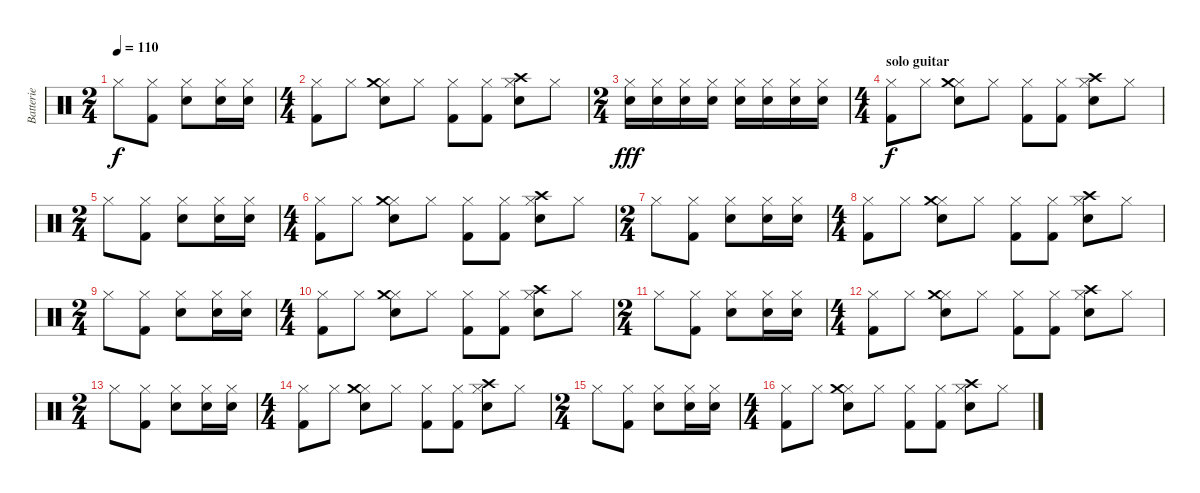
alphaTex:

\track ("Batterie" "Batterie") {instrument percussion}
\staff {score}
\articulation defaults
\ts (2 4)
\tempo 110
\clef neutral
\ks c "Hi-Hat (closed)".8{dy f}
("Hi-Hat (closed)" "Kick (hit) 2").8 ("Hi-Hat (closed)" "Electric Snare (hit)").8 ("Hi-Hat (closed)" "Electric Snare (hit)").16 ("Hi-Hat (closed)" "Electric Snare (hit)").16 |
\ts (4 4)
("Hi-Hat (closed)" "Kick (hit) 2").8 "Hi-Hat (closed)".8 ("Hi-Hat (closed)" "Crash medium (hit)" "Electric Snare (hit)").8 "Hi-Hat (closed)".8 ("Hi-Hat (closed)" "Kick (hit) 2").8 ("Hi-Hat (closed)" "Kick (hit) 2").8 ("Hi-Hat (closed)" "Crash high (hit)" "Electric Snare (hit)").8 "Hi-Hat (closed)".8 |
\ts (2 4)
("Hi-Hat (closed)" "Electric Snare (hit)").16{dy fff} ("Hi-Hat (closed)" "Electric Snare (hit)").16 ("Hi-Hat (closed)" "Electric Snare (hit)").16 ("Hi-Hat (closed)" "Electric Snare (hit)").16 ("Hi-Hat (closed)" "Electric Snare (hit)").16 ("Hi-Hat (closed)" "Electric Snare (hit)").16 ("Hi-Hat (closed)" "Electric Snare (hit)").16 ("Hi-Hat (closed)" "Electric Snare (hit)").16 |
\ts (4 4)
\section ("" "solo guitar")
("Hi-Hat (closed)" "Kick (hit) 2").8{dy f} "Hi-Hat (closed)".8 ("Hi-Hat (closed)" "Crash medium (hit)" "Electric Snare (hit)").8 "Hi-Hat (closed)".8 ("Hi-Hat (closed)" "Kick (hit) 2").8 ("Hi-Hat (closed)" "Kick (hit) 2").8 ("Hi-Hat (closed)" "Crash high (hit)" "Electric Snare (hit)").8 "Hi-Hat (closed)".8 |
\ts (2 4)
"Hi-Hat (closed)".8 ("Hi-Hat (closed)" "Kick (hit) 2").8 ("Hi-Hat (closed)" "Electric Snare (hit)").8 ("Hi-Hat (closed)" "Electric Snare (hit)").16 ("Hi-Hat (closed)" "Electric Snare (hit)").16 |
\ts (4 4)
("Hi-Hat (closed)" "Kick (hit) 2").8 "Hi-Hat (closed)".8 ("Hi-Hat (closed)" "Crash medium (hit)" "Electric Snare (hit)").8 "Hi-Hat (closed)".8 ("Hi-Hat (closed)" "Kick (hit) 2").8 ("Hi-Hat (closed)" "Kick (hit) 2").8 ("Hi-Hat (closed)" "Crash high (hit)" "Electric Snare (hit)").8 "Hi-Hat (closed)".8 |
\ts (2 4)
"Hi-Hat (closed)".8 ("Hi-Hat (closed)" "Kick (hit) 2").8 ("Hi-Hat (closed)" "Electric Snare (hit)").8 ("Hi-Hat (closed)" "Electric Snare (hit)").16 ("Hi-Hat (closed)" "Electric Snare (hit)").16 |
\ts (4 4)
("Hi-Hat (closed)" "Kick (hit) 2").8 "Hi-Hat (closed)".8 ("Hi-Hat (closed)" "Crash medium (hit)" "Electric Snare (hit)").8 "Hi-Hat (closed)".8 ("Hi-Hat (closed)" "Kick (hit) 2").8 ("Hi-Hat (closed)" "Kick (hit) 2").8 ("Hi-Hat (closed)" "Crash high (hit)" "Electric Snare (hit)").8 "Hi-Hat (closed)".8 |
\ts (2 4)
"Hi-Hat (closed)".8 ("Hi-Hat (closed)" "Kick (hit) 2").8 ("Hi-Hat (closed)" "Electric Snare (hit)").8 ("Hi-Hat (closed)" "Electric Snare (hit)").16 ("Hi-Hat (closed)" "Electric Snare (hit)").16 |
\ts (4 4)
("Hi-Hat (closed)" "Kick (hit) 2").8 "Hi-Hat (closed)".8 ("Hi-Hat (closed)" "Crash medium (hit)" "Electric Snare (hit)").8 "Hi-Hat (closed)".8 ("Hi-Hat (closed)" "Kick (hit) 2").8 ("Hi-Hat (closed)" "Kick (hit) 2").8 ("Hi-Hat (closed)" "Crash high (hit)" "Electric Snare (hit)").8 "Hi-Hat (closed)".8 |
\ts (2 4)
"Hi-Hat (closed)".8 ("Hi-Hat (closed)" "Kick (hit) 2").8 ("Hi-Hat (closed)" "Electric Snare (hit)").8 ("Hi-Hat (closed)" "Electric Snare (hit)").16 ("Hi-Hat (closed)" "Electric Snare (hit)").16 |
\ts (4 4)
("Hi-Hat (closed)" "Kick (hit) 2").8 "Hi-Hat (closed)".8 ("Hi-Hat (closed)" "Crash medium (hit)" "Electric Snare (hit)").8 "Hi-Hat (closed)".8 ("Hi-Hat (closed)" "Kick (hit) 2").8 ("Hi-Hat (closed)" "Kick (hit) 2").8 ("Hi-Hat (closed)" "Crash high (hit)" "Electric Snare (hit)").8 "Hi-Hat (closed)".8 |
\ts (2 4)
"Hi-Hat (closed)".8 ("Hi-Hat (closed)" "Kick (hit) 2").8 ("Hi-Hat (closed)" "Electric Snare (hit)").8 ("Hi-Hat (closed)" "Electric Snare (hit)").16 ("Hi-Hat (closed)" "Electric Snare (hit)").16 |
\ts (4 4)
("Hi-Hat (closed)" "Kick (hit) 2").8 "Hi-Hat (closed)".8 ("Hi-Hat (closed)" "Crash medium (hit)" "Electric Snare (hit)").8 "Hi-Hat (closed)".8 ("Hi-Hat (closed)" "Kick (hit) 2").8 ("Hi-Hat (closed)" "Kick (hit) 2").8 ("Hi-Hat (closed)" "Crash high (hit)" "Electric Snare (hit)").8 "Hi-Hat (closed)".8 |
\ts (2 4)
"Hi-Hat (closed)".8 ("Hi-Hat (closed)" "Kick (hit) 2").8 ("Hi-Hat (closed)" "Electric Snare (hit)").8 ("Hi-Hat (closed)" "Electric Snare (hit)").16 ("Hi-Hat (closed)" "Electric Snare (hit)").16 |
\ts (4 4)
("Hi-Hat (closed)" "Kick (hit) 2").8 "Hi-Hat (closed)".8 ("Hi-Hat (closed)" "Crash medium (hit)" "Electric Snare (hit)").8 "Hi-Hat (closed)".8 ("Hi-Hat (closed)" "Kick (hit) 2").8 ("Hi-Hat (closed)" "Kick (hit) 2").8 ("Hi-Hat (closed)" "Crash high (hit)" "Electric Snare (hit)").8 "Hi-Hat (closed)".8
